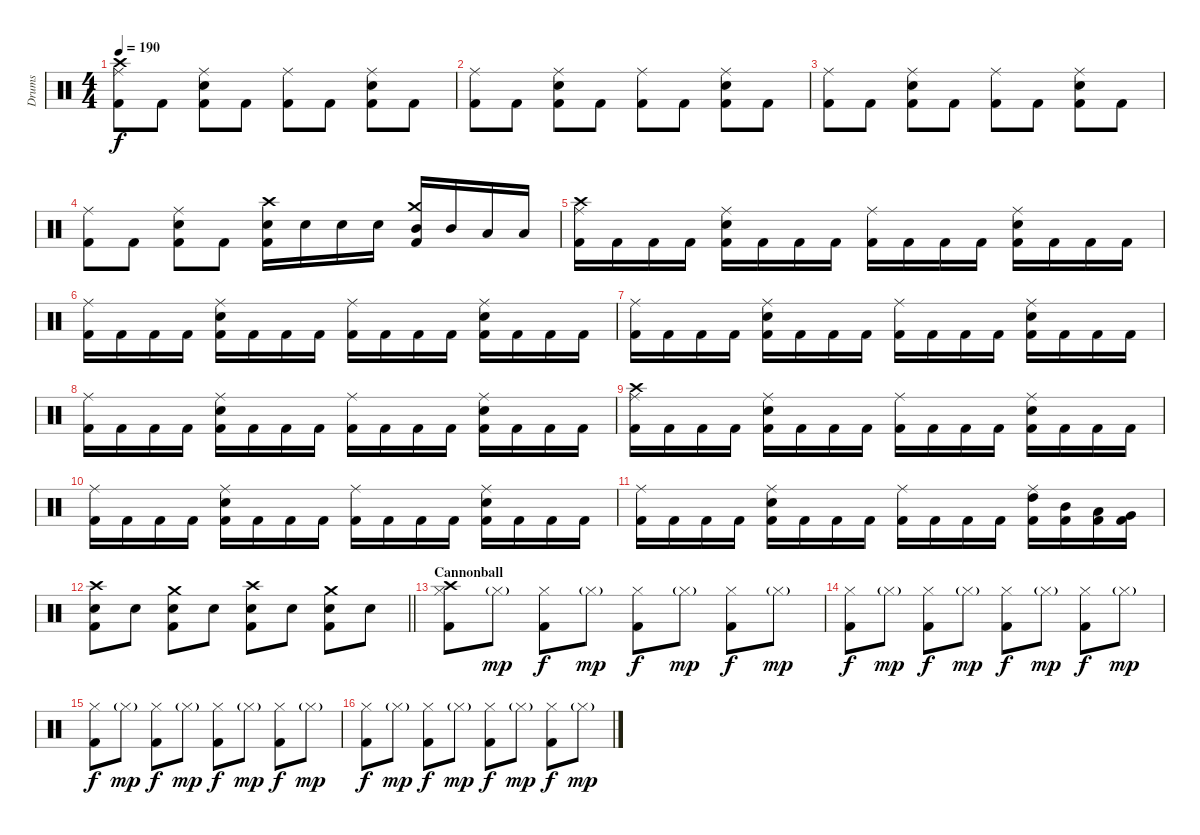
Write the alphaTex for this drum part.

\track ("Drums" "Drums") {instrument percussion}
\staff {score}
\articulation defaults
\ts (4 4)
\tempo 190
\clef neutral
\ks c
("Crash high (hit)" "Ride (middle)" "Kick (hit) 2").8{dy f} "Kick (hit) 2".8 ("Ride (middle)" "Snare (hit) 2" "Kick (hit) 2").8 "Kick (hit) 2".8 ("Ride (middle)" "Kick (hit) 2").8 "Kick (hit) 2".8 ("Ride (middle)" "Snare (hit) 2" "Kick (hit) 2").8 "Kick (hit) 2".8 |
("Ride (middle)" "Kick (hit) 2").8 "Kick (hit) 2".8 ("Ride (middle)" "Snare (hit) 2" "Kick (hit) 2").8 "Kick (hit) 2".8 ("Ride (middle)" "Kick (hit) 2").8 "Kick (hit) 2".8 ("Ride (middle)" "Snare (hit) 2" "Kick (hit) 2").8 "Kick (hit) 2".8 |
("Ride (middle)" "Kick (hit) 2").8 "Kick (hit) 2".8 ("Ride (middle)" "Snare (hit) 2" "Kick (hit) 2").8 "Kick (hit) 2".8 ("Ride (middle)" "Kick (hit) 2").8 "Kick (hit) 2".8 ("Ride (middle)" "Snare (hit) 2" "Kick (hit) 2").8 "Kick (hit) 2".8 |
("Ride (middle)" "Kick (hit) 2").8 "Kick (hit) 2".8 ("Ride (middle)" "Snare (hit) 2" "Kick (hit) 2").8 "Kick (hit) 2".8 ("Crash high (hit)" "Snare (hit) 2" "Kick (hit) 2").16 "Snare (hit) 2".16 "Snare (hit) 2".16 "Snare (hit) 2".16 ("Crash medium (hit)" "Mid Tom (hit)" "Kick (hit) 2").16 "Mid Tom (hit)".16 "Low Tom (hit)".16 "Low Tom (hit)".16 |
("Crash high (hit)" "Ride (middle)" "Kick (hit) 2").16 "Kick (hit) 2".16 "Kick (hit) 2".16 "Kick (hit) 2".16 ("Ride (middle)" "Snare (hit) 2" "Kick (hit) 2").16 "Kick (hit) 2".16 "Kick (hit) 2".16 "Kick (hit) 2".16 ("Ride (middle)" "Kick (hit) 2").16 "Kick (hit) 2".16 "Kick (hit) 2".16 "Kick (hit) 2".16 ("Ride (middle)" "Snare (hit) 2" "Kick (hit) 2").16 "Kick (hit) 2".16 "Kick (hit) 2".16 "Kick (hit) 2".16 |
("Ride (middle)" "Kick (hit) 2").16 "Kick (hit) 2".16 "Kick (hit) 2".16 "Kick (hit) 2".16 ("Ride (middle)" "Snare (hit) 2" "Kick (hit) 2").16 "Kick (hit) 2".16 "Kick (hit) 2".16 "Kick (hit) 2".16 ("Ride (middle)" "Kick (hit) 2").16 "Kick (hit) 2".16 "Kick (hit) 2".16 "Kick (hit) 2".16 ("Ride (middle)" "Snare (hit) 2" "Kick (hit) 2").16 "Kick (hit) 2".16 "Kick (hit) 2".16 "Kick (hit) 2".16 |
("Ride (middle)" "Kick (hit) 2").16 "Kick (hit) 2".16 "Kick (hit) 2".16 "Kick (hit) 2".16 ("Ride (middle)" "Snare (hit) 2" "Kick (hit) 2").16 "Kick (hit) 2".16 "Kick (hit) 2".16 "Kick (hit) 2".16 ("Ride (middle)" "Kick (hit) 2").16 "Kick (hit) 2".16 "Kick (hit) 2".16 "Kick (hit) 2".16 ("Ride (middle)" "Snare (hit) 2" "Kick (hit) 2").16 "Kick (hit) 2".16 "Kick (hit) 2".16 "Kick (hit) 2".16 |
("Ride (middle)" "Kick (hit) 2").16 "Kick (hit) 2".16 "Kick (hit) 2".16 "Kick (hit) 2".16 ("Ride (middle)" "Snare (hit) 2" "Kick (hit) 2").16 "Kick (hit) 2".16 "Kick (hit) 2".16 "Kick (hit) 2".16 ("Ride (middle)" "Kick (hit) 2").16 "Kick (hit) 2".16 "Kick (hit) 2".16 "Kick (hit) 2".16 ("Ride (middle)" "Snare (hit) 2" "Kick (hit) 2").16 "Kick (hit) 2".16 "Kick (hit) 2".16 "Kick (hit) 2".16 |
("Crash high (hit)" "Ride (middle)" "Kick (hit) 2").16 "Kick (hit) 2".16 "Kick (hit) 2".16 "Kick (hit) 2".16 ("Ride (middle)" "Snare (hit) 2" "Kick (hit) 2").16 "Kick (hit) 2".16 "Kick (hit) 2".16 "Kick (hit) 2".16 ("Ride (middle)" "Kick (hit) 2").16 "Kick (hit) 2".16 "Kick (hit) 2".16 "Kick (hit) 2".16 ("Ride (middle)" "Snare (hit) 2" "Kick (hit) 2").16 "Kick (hit) 2".16 "Kick (hit) 2".16 "Kick (hit) 2".16 |
("Ride (middle)" "Kick (hit) 2").16 "Kick (hit) 2".16 "Kick (hit) 2".16 "Kick (hit) 2".16 ("Ride (middle)" "Snare (hit) 2" "Kick (hit) 2").16 "Kick (hit) 2".16 "Kick (hit) 2".16 "Kick (hit) 2".16 ("Ride (middle)" "Kick (hit) 2").16 "Kick (hit) 2".16 "Kick (hit) 2".16 "Kick (hit) 2".16 ("Ride (middle)" "Snare (hit) 2" "Kick (hit) 2").16 "Kick (hit) 2".16 "Kick (hit) 2".16 "Kick (hit) 2".16 |
("Ride (middle)" "Kick (hit) 2").16 "Kick (hit) 2".16 "Kick (hit) 2".16 "Kick (hit) 2".16 ("Ride (middle)" "Snare (hit) 2" "Kick (hit) 2").16 "Kick (hit) 2".16 "Kick (hit) 2".16 "Kick (hit) 2".16 ("Ride (middle)" "Kick (hit) 2").16 "Kick (hit) 2".16 "Kick (hit) 2".16 "Kick (hit) 2".16 ("Ride (middle)" "High Tom (hit)" "Kick (hit) 2").16 ("Mid Tom (hit)" "Kick (hit) 2").16 ("Low Tom (hit)" "Kick (hit) 2").16 ("Very Low Tom (hit)" "Kick (hit) 2").16 |
\barLineRight lightlight
("Crash high (hit)" "Snare (hit) 2" "Kick (hit) 2").8 "Snare (hit) 2".8 ("Crash medium (hit)" "Snare (hit) 2" "Kick (hit) 2").8 "Snare (hit) 2".8 ("Crash high (hit)" "Snare (hit) 2" "Kick (hit) 2").8 "Snare (hit) 2".8 ("Crash medium (hit)" "Snare (hit) 2" "Kick (hit) 2").8 "Snare (hit) 2".8 |
\section ("" "Cannonball")
("Crash high (hit)" "Hi-Hat (closed)" "Kick (hit) 2").8 "Hi-Hat (closed)"{g}.8{dy mp} ("Hi-Hat (closed)" "Kick (hit) 2").8{dy f} "Hi-Hat (closed)"{g}.8{dy mp} ("Hi-Hat (closed)" "Kick (hit) 2").8{dy f} "Hi-Hat (closed)"{g}.8{dy mp} ("Hi-Hat (closed)" "Kick (hit) 2").8{dy f} "Hi-Hat (closed)"{g}.8{dy mp} |
("Hi-Hat (closed)" "Kick (hit) 2").8{dy f} "Hi-Hat (closed)"{g}.8{dy mp} ("Hi-Hat (closed)" "Kick (hit) 2").8{dy f} "Hi-Hat (closed)"{g}.8{dy mp} ("Hi-Hat (closed)" "Kick (hit) 2").8{dy f} "Hi-Hat (closed)"{g}.8{dy mp} ("Hi-Hat (closed)" "Kick (hit) 2").8{dy f} "Hi-Hat (closed)"{g}.8{dy mp} |
("Hi-Hat (closed)" "Kick (hit) 2").8{dy f} "Hi-Hat (closed)"{g}.8{dy mp} ("Hi-Hat (closed)" "Kick (hit) 2").8{dy f} "Hi-Hat (closed)"{g}.8{dy mp} ("Hi-Hat (closed)" "Kick (hit) 2").8{dy f} "Hi-Hat (closed)"{g}.8{dy mp} ("Hi-Hat (closed)" "Kick (hit) 2").8{dy f} "Hi-Hat (closed)"{g}.8{dy mp} |
("Hi-Hat (closed)" "Kick (hit) 2").8{dy f} "Hi-Hat (closed)"{g}.8{dy mp} ("Hi-Hat (closed)" "Kick (hit) 2").8{dy f} "Hi-Hat (closed)"{g}.8{dy mp} ("Hi-Hat (closed)" "Kick (hit) 2").8{dy f} "Hi-Hat (closed)"{g}.8{dy mp} ("Hi-Hat (closed)" "Kick (hit) 2").8{dy f} "Hi-Hat (closed)"{g}.8{dy mp}
